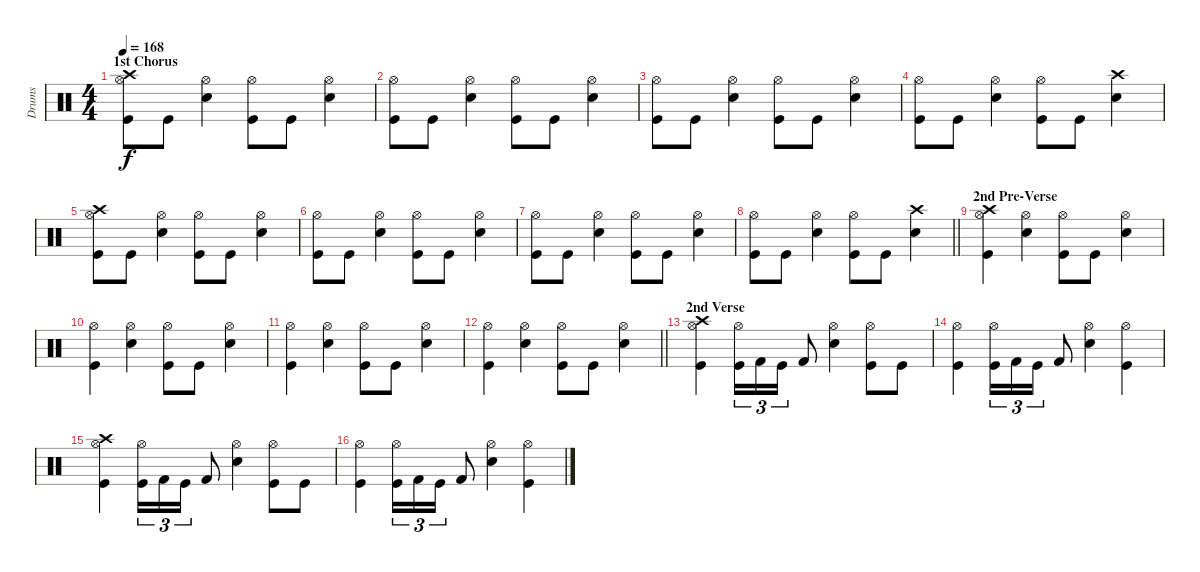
\track ("Drums" "Drums") {instrument percussion}
\staff {score}
\articulation defaults
\ts (4 4)
\section ("" "1st Chorus")
\tempo 168
\clef neutral
\ks c
("Crash high (hit)" "Hi-Hat (open)" "Kick (hit)").8{dy f} "Kick (hit)".8 ("Hi-Hat (open)" "Snare (hit) 2").4 ("Hi-Hat (open)" "Kick (hit)").8 "Kick (hit)".8 ("Hi-Hat (open)" "Snare (hit) 2").4 |
("Hi-Hat (open)" "Kick (hit)").8 "Kick (hit)".8 ("Hi-Hat (open)" "Snare (hit) 2").4 ("Hi-Hat (open)" "Kick (hit)").8 "Kick (hit)".8 ("Hi-Hat (open)" "Snare (hit) 2").4 |
("Hi-Hat (open)" "Kick (hit)").8 "Kick (hit)".8 ("Hi-Hat (open)" "Snare (hit) 2").4 ("Hi-Hat (open)" "Kick (hit)").8 "Kick (hit)".8 ("Hi-Hat (open)" "Snare (hit) 2").4 |
("Hi-Hat (open)" "Kick (hit)").8 "Kick (hit)".8 ("Hi-Hat (open)" "Snare (hit) 2").4 ("Hi-Hat (open)" "Kick (hit)").8 "Kick (hit)".8 ("Crash high (hit)" "Snare (hit) 2").4 |
("Crash high (hit)" "Hi-Hat (open)" "Kick (hit)").8 "Kick (hit)".8 ("Hi-Hat (open)" "Snare (hit) 2").4 ("Hi-Hat (open)" "Kick (hit)").8 "Kick (hit)".8 ("Hi-Hat (open)" "Snare (hit) 2").4 |
("Hi-Hat (open)" "Kick (hit)").8 "Kick (hit)".8 ("Hi-Hat (open)" "Snare (hit) 2").4 ("Hi-Hat (open)" "Kick (hit)").8 "Kick (hit)".8 ("Hi-Hat (open)" "Snare (hit) 2").4 |
("Hi-Hat (open)" "Kick (hit)").8 "Kick (hit)".8 ("Hi-Hat (open)" "Snare (hit) 2").4 ("Hi-Hat (open)" "Kick (hit)").8 "Kick (hit)".8 ("Hi-Hat (open)" "Snare (hit) 2").4 |
\barLineRight lightlight
("Hi-Hat (open)" "Kick (hit)").8 "Kick (hit)".8 ("Hi-Hat (open)" "Snare (hit) 2").4 ("Hi-Hat (open)" "Kick (hit)").8 "Kick (hit)".8 ("Crash high (hit)" "Snare (hit) 2").4 |
\section ("" "2nd Pre-Verse")
("Crash high (hit)" "Hi-Hat (open)" "Kick (hit)").4 ("Hi-Hat (open)" "Snare (hit) 2").4 ("Hi-Hat (open)" "Kick (hit)").8 "Kick (hit)".8 ("Hi-Hat (open)" "Snare (hit) 2").4 |
("Hi-Hat (open)" "Kick (hit)").4 ("Hi-Hat (open)" "Snare (hit) 2").4 ("Hi-Hat (open)" "Kick (hit)").8 "Kick (hit)".8 ("Hi-Hat (open)" "Snare (hit) 2").4 |
("Hi-Hat (open)" "Kick (hit)").4 ("Hi-Hat (open)" "Snare (hit) 2").4 ("Hi-Hat (open)" "Kick (hit)").8 "Kick (hit)".8 ("Hi-Hat (open)" "Snare (hit) 2").4 |
\barLineRight lightlight
("Hi-Hat (open)" "Kick (hit)").4 ("Hi-Hat (open)" "Snare (hit) 2").4 ("Hi-Hat (open)" "Kick (hit)").8 "Kick (hit)".8 ("Hi-Hat (open)" "Snare (hit) 2").4 |
\section ("" "2nd Verse")
("Crash high (hit)" "Hi-Hat (open)" "Kick (hit)").4 ("Hi-Hat (open)" "Kick (hit)").16{tu (3 2)} "Kick (hit) 2".16{tu (3 2)} "Kick (hit)".16{tu (3 2)} "Kick (hit) 2".8 ("Hi-Hat (open)" "Snare (hit) 2").4 ("Hi-Hat (open)" "Kick (hit)").8 "Kick (hit)".8 |
("Hi-Hat (open)" "Kick (hit)").4 ("Hi-Hat (open)" "Kick (hit)").16{tu (3 2)} "Kick (hit) 2".16{tu (3 2)} "Kick (hit)".16{tu (3 2)} "Kick (hit) 2".8 ("Hi-Hat (open)" "Snare (hit) 2").4 ("Hi-Hat (open)" "Kick (hit)").4 |
("Crash high (hit)" "Hi-Hat (open)" "Kick (hit)").4 ("Hi-Hat (open)" "Kick (hit)").16{tu (3 2)} "Kick (hit) 2".16{tu (3 2)} "Kick (hit)".16{tu (3 2)} "Kick (hit) 2".8 ("Hi-Hat (open)" "Snare (hit) 2").4 ("Hi-Hat (open)" "Kick (hit)").8 "Kick (hit)".8 |
("Hi-Hat (open)" "Kick (hit)").4 ("Hi-Hat (open)" "Kick (hit)").16{tu (3 2)} "Kick (hit) 2".16{tu (3 2)} "Kick (hit)".16{tu (3 2)} "Kick (hit) 2".8 ("Hi-Hat (open)" "Snare (hit) 2").4 ("Hi-Hat (open)" "Kick (hit)").4
